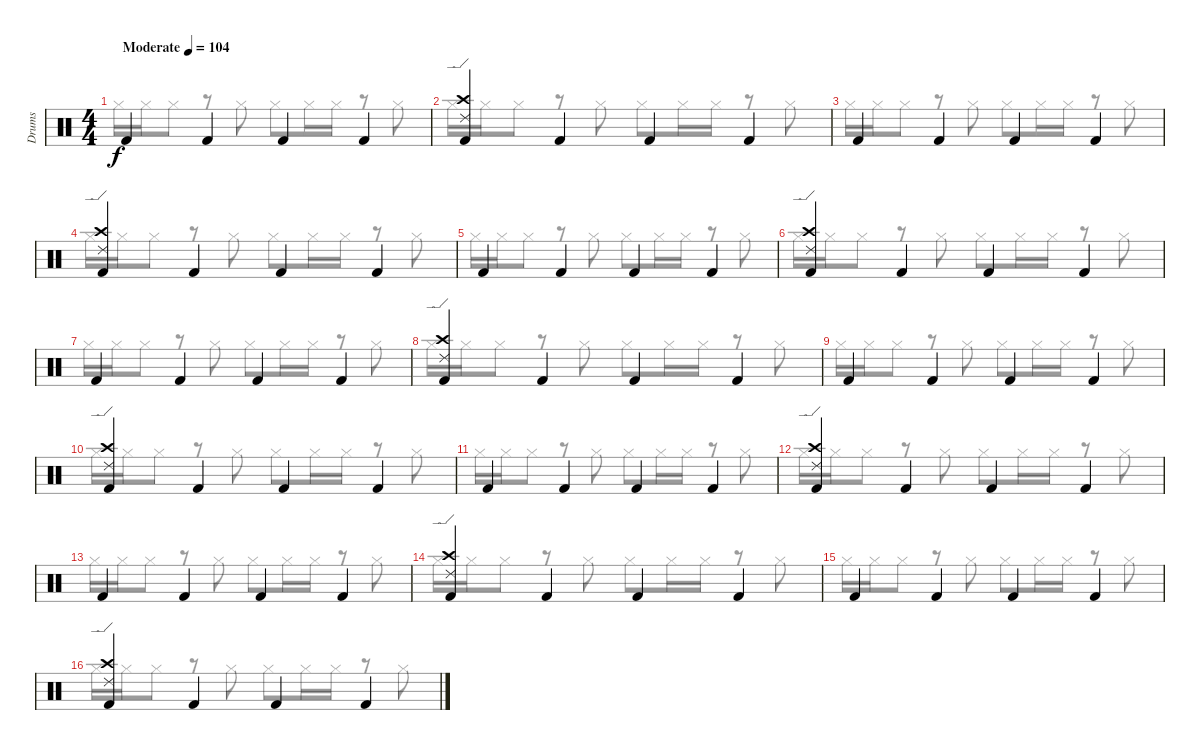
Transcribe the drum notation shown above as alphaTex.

\track ("Drums" "Drums") {instrument percussion}
\staff {score}
\articulation defaults
\voice
\ts (4 4)
\tempo (104 "Moderate")
\clef neutral
\ks c "Kick (hit) 2".4{dy f} "Kick (hit) 2".4 "Kick (hit) 2".4 "Kick (hit) 2".4
|
("Crash high (hit)" "Ride (edge) 2" "Kick (hit) 2").4 "Kick (hit) 2".4 "Kick (hit) 2".4 "Kick (hit) 2".4 |
"Kick (hit) 2".4 "Kick (hit) 2".4 "Kick (hit) 2".4 "Kick (hit) 2".4 |
("Crash high (hit)" "Ride (edge) 2" "Kick (hit) 2").4 "Kick (hit) 2".4 "Kick (hit) 2".4 "Kick (hit) 2".4 |
"Kick (hit) 2".4 "Kick (hit) 2".4 "Kick (hit) 2".4 "Kick (hit) 2".4 |
("Crash high (hit)" "Ride (edge) 2" "Kick (hit) 2").4 "Kick (hit) 2".4 "Kick (hit) 2".4 "Kick (hit) 2".4 |
"Kick (hit) 2".4 "Kick (hit) 2".4 "Kick (hit) 2".4 "Kick (hit) 2".4 |
("Crash high (hit)" "Ride (edge) 2" "Kick (hit) 2").4 "Kick (hit) 2".4 "Kick (hit) 2".4 "Kick (hit) 2".4 |
"Kick (hit) 2".4 "Kick (hit) 2".4 "Kick (hit) 2".4 "Kick (hit) 2".4 |
("Crash high (hit)" "Ride (edge) 2" "Kick (hit) 2").4 "Kick (hit) 2".4 "Kick (hit) 2".4 "Kick (hit) 2".4 |
"Kick (hit) 2".4 "Kick (hit) 2".4 "Kick (hit) 2".4 "Kick (hit) 2".4 |
("Crash high (hit)" "Ride (edge) 2" "Kick (hit) 2").4 "Kick (hit) 2".4 "Kick (hit) 2".4 "Kick (hit) 2".4 |
"Kick (hit) 2".4 "Kick (hit) 2".4 "Kick (hit) 2".4 "Kick (hit) 2".4 |
("Crash high (hit)" "Ride (edge) 2" "Kick (hit) 2").4 "Kick (hit) 2".4 "Kick (hit) 2".4 "Kick (hit) 2".4 |
"Kick (hit) 2".4 "Kick (hit) 2".4 "Kick (hit) 2".4 "Kick (hit) 2".4 |
("Crash high (hit)" "Ride (edge) 2" "Kick (hit) 2").4 "Kick (hit) 2".4 "Kick (hit) 2".4 "Kick (hit) 2".4
\voice
\clef neutral
\ottava regular
\simile none
\ks c "Hi-Hat (closed)".16{dy f} "Hi-Hat (closed)".16 "Hi-Hat (closed)".8
r.8 "Hi-Hat (closed)".8 "Hi-Hat (closed)".8 "Hi-Hat (closed)".16 "Hi-Hat (closed)".16 r.8 "Hi-Hat (closed)".8 |
"Hi-Hat (closed)".16 "Hi-Hat (closed)".16 "Hi-Hat (closed)".8 r.8 "Hi-Hat (closed)".8 "Hi-Hat (closed)".8 "Hi-Hat (closed)".16 "Hi-Hat (closed)".16 r.8 "Hi-Hat (closed)".8 |
"Hi-Hat (closed)".16 "Hi-Hat (closed)".16 "Hi-Hat (closed)".8 r.8 "Hi-Hat (closed)".8 "Hi-Hat (closed)".8 "Hi-Hat (closed)".16 "Hi-Hat (closed)".16 r.8 "Hi-Hat (closed)".8 |
"Hi-Hat (closed)".16 "Hi-Hat (closed)".16 "Hi-Hat (closed)".8 r.8 "Hi-Hat (closed)".8 "Hi-Hat (closed)".8 "Hi-Hat (closed)".16 "Hi-Hat (closed)".16 r.8 "Hi-Hat (closed)".8 |
"Hi-Hat (closed)".16 "Hi-Hat (closed)".16 "Hi-Hat (closed)".8 r.8 "Hi-Hat (closed)".8 "Hi-Hat (closed)".8 "Hi-Hat (closed)".16 "Hi-Hat (closed)".16 r.8 "Hi-Hat (closed)".8 |
"Hi-Hat (closed)".16 "Hi-Hat (closed)".16 "Hi-Hat (closed)".8 r.8 "Hi-Hat (closed)".8 "Hi-Hat (closed)".8 "Hi-Hat (closed)".16 "Hi-Hat (closed)".16 r.8 "Hi-Hat (closed)".8 |
"Hi-Hat (closed)".16 "Hi-Hat (closed)".16 "Hi-Hat (closed)".8 r.8 "Hi-Hat (closed)".8 "Hi-Hat (closed)".8 "Hi-Hat (closed)".16 "Hi-Hat (closed)".16 r.8 "Hi-Hat (closed)".8 |
"Hi-Hat (closed)".16 "Hi-Hat (closed)".16 "Hi-Hat (closed)".8 r.8 "Hi-Hat (closed)".8 "Hi-Hat (closed)".8 "Hi-Hat (closed)".16 "Hi-Hat (closed)".16 r.8 "Hi-Hat (closed)".8 |
"Hi-Hat (closed)".16 "Hi-Hat (closed)".16 "Hi-Hat (closed)".8 r.8 "Hi-Hat (closed)".8 "Hi-Hat (closed)".8 "Hi-Hat (closed)".16 "Hi-Hat (closed)".16 r.8 "Hi-Hat (closed)".8 |
"Hi-Hat (closed)".16 "Hi-Hat (closed)".16 "Hi-Hat (closed)".8 r.8 "Hi-Hat (closed)".8 "Hi-Hat (closed)".8 "Hi-Hat (closed)".16 "Hi-Hat (closed)".16 r.8 "Hi-Hat (closed)".8 |
"Hi-Hat (closed)".16 "Hi-Hat (closed)".16 "Hi-Hat (closed)".8 r.8 "Hi-Hat (closed)".8 "Hi-Hat (closed)".8 "Hi-Hat (closed)".16 "Hi-Hat (closed)".16 r.8 "Hi-Hat (closed)".8 |
"Hi-Hat (closed)".16 "Hi-Hat (closed)".16 "Hi-Hat (closed)".8 r.8 "Hi-Hat (closed)".8 "Hi-Hat (closed)".8 "Hi-Hat (closed)".16 "Hi-Hat (closed)".16 r.8 "Hi-Hat (closed)".8 |
"Hi-Hat (closed)".16 "Hi-Hat (closed)".16 "Hi-Hat (closed)".8 r.8 "Hi-Hat (closed)".8 "Hi-Hat (closed)".8 "Hi-Hat (closed)".16 "Hi-Hat (closed)".16 r.8 "Hi-Hat (closed)".8 |
"Hi-Hat (closed)".16 "Hi-Hat (closed)".16 "Hi-Hat (closed)".8 r.8 "Hi-Hat (closed)".8 "Hi-Hat (closed)".8 "Hi-Hat (closed)".16 "Hi-Hat (closed)".16 r.8 "Hi-Hat (closed)".8 |
"Hi-Hat (closed)".16 "Hi-Hat (closed)".16 "Hi-Hat (closed)".8 r.8 "Hi-Hat (closed)".8 "Hi-Hat (closed)".8 "Hi-Hat (closed)".16 "Hi-Hat (closed)".16 r.8 "Hi-Hat (closed)".8 |
"Hi-Hat (closed)".16 "Hi-Hat (closed)".16 "Hi-Hat (closed)".8 r.8 "Hi-Hat (closed)".8 "Hi-Hat (closed)".8 "Hi-Hat (closed)".16 "Hi-Hat (closed)".16 r.8 "Hi-Hat (closed)".8
